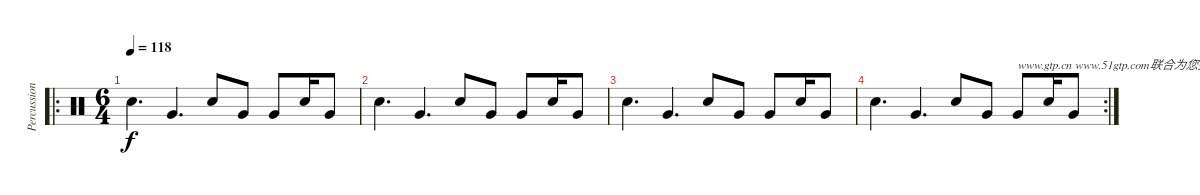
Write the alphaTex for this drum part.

\track ("Percussion" "Percussion") {instrument percussion}
\staff {score}
\articulation defaults
\ro
\ts (6 4)
\tempo 118
\clef neutral
\ks c "Electric Snare (hit)".4{d dy f} "Very Low Tom (hit)".4{d} "Electric Snare (hit)".8 "Very Low Tom (hit)".8 "Very Low Tom (hit)".8 "Electric Snare (hit)".16 "Very Low Tom (hit)".8
|
"Electric Snare (hit)".4{d} "Very Low Tom (hit)".4{d} "Electric Snare (hit)".8 "Very Low Tom (hit)".8 "Very Low Tom (hit)".8 "Electric Snare (hit)".16 "Very Low Tom (hit)".8 |
"Electric Snare (hit)".4{d} "Very Low Tom (hit)".4{d} "Electric Snare (hit)".8 "Very Low Tom (hit)".8 "Very Low Tom (hit)".8 "Electric Snare (hit)".16 "Very Low Tom (hit)".8 |
\rc 2 "Electric Snare (hit)".4{d} "Very Low Tom (hit)".4{d} "Electric Snare (hit)".8 "Very Low Tom (hit)".8 "Very Low Tom (hit)".8{txt "www.gtp.cn www.51gtp.com联合为您提供优秀的GTP!"} "Electric Snare (hit)".16 "Very Low Tom (hit)".8
